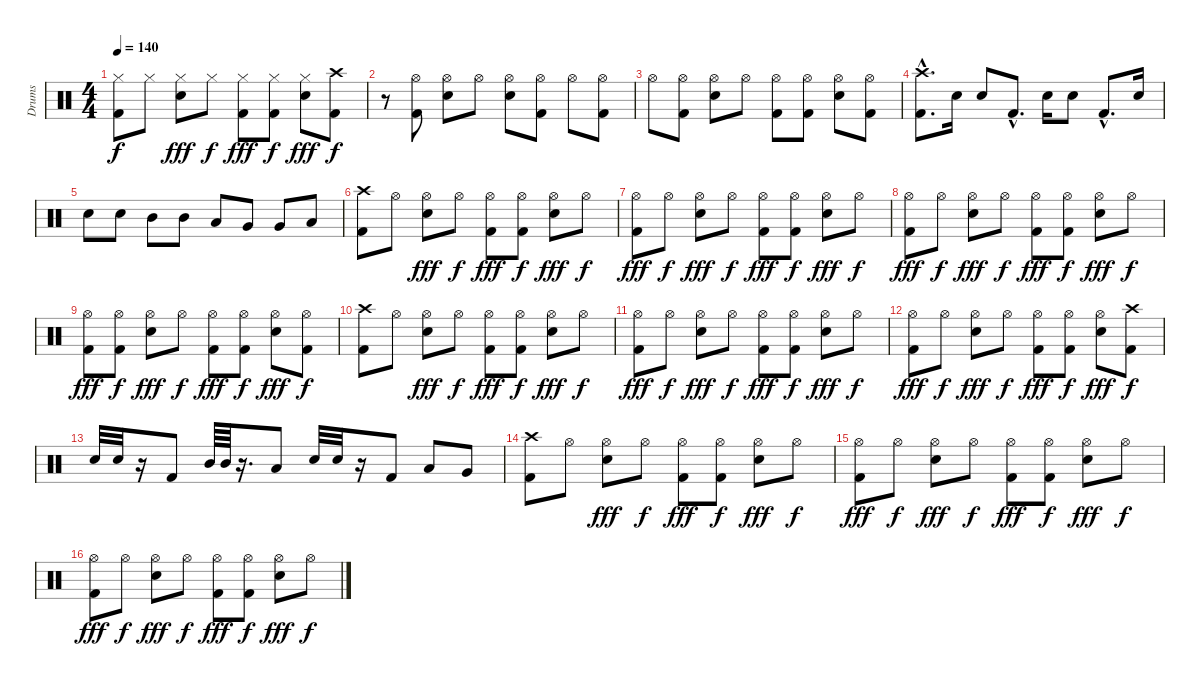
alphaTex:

\track ("Drums" "Drums") {instrument percussion}
\staff {score}
\articulation defaults
\ts (4 4)
\tempo 140
\clef neutral
\ks c
("Hi-Hat (closed)" "Kick (hit) 2").8{dy f} "Hi-Hat (closed)".8 ("Hi-Hat (closed)" "Snare (hit) 2").8{dy fff} "Hi-Hat (closed)".8{dy f} ("Hi-Hat (closed)" "Kick (hit) 2").8{dy fff} ("Hi-Hat (closed)" "Kick (hit) 2").8{dy f} ("Hi-Hat (closed)" "Snare (hit) 2").8{dy fff} ("Crash high (hit)" "Kick (hit) 2").8{dy f} |
r.8 ("Hi-Hat (open)" "Kick (hit) 2").8 ("Hi-Hat (open)" "Snare (hit) 2").8 "Hi-Hat (open)".8 ("Hi-Hat (open)" "Snare (hit) 2").8 ("Hi-Hat (open)" "Kick (hit) 2").8 "Hi-Hat (open)".8 ("Hi-Hat (open)" "Kick (hit) 2").8 |
"Hi-Hat (open)".8 ("Hi-Hat (open)" "Kick (hit) 2").8 ("Hi-Hat (open)" "Snare (hit) 2").8 "Hi-Hat (open)".8 ("Hi-Hat (open)" "Kick (hit) 2").8 ("Hi-Hat (open)" "Kick (hit) 2").8 ("Hi-Hat (open)" "Snare (hit) 2").8 ("Hi-Hat (open)" "Kick (hit) 2").8 |
("Crash high (hit)"{hac} "Kick (hit) 2"{hac}).8{d} "Snare (hit) 2".16 "Snare (hit) 2".8 "Kick (hit) 2"{hac}.8{d} "Snare (hit) 2".16 "Snare (hit) 2".8 "Kick (hit) 2"{hac}.8{d} "Snare (hit) 2".16 |
"Snare (hit) 2".8 "Snare (hit) 2".8 "Mid Tom (hit)".8 "Mid Tom (hit)".8 "Low Tom (hit)".8 "Very Low Tom (hit)".8 "Very Low Tom (hit)".8 "Low Floor Tom (hit)".8 |
("Crash high (hit)" "Kick (hit) 2").8 "Hi-Hat (open)".8 ("Hi-Hat (open)" "Snare (hit) 2").8{dy fff} "Hi-Hat (open)".8{dy f} ("Hi-Hat (open)" "Kick (hit) 2").8{dy fff} ("Hi-Hat (open)" "Kick (hit) 2").8{dy f} ("Hi-Hat (open)" "Snare (hit) 2").8{dy fff} "Hi-Hat (open)".8{dy f} |
("Hi-Hat (open)" "Kick (hit) 2").8{dy fff} "Hi-Hat (open)".8{dy f} ("Hi-Hat (open)" "Snare (hit) 2").8{dy fff} "Hi-Hat (open)".8{dy f} ("Hi-Hat (open)" "Kick (hit) 2").8{dy fff} ("Hi-Hat (open)" "Kick (hit) 2").8{dy f} ("Hi-Hat (open)" "Snare (hit) 2").8{dy fff} "Hi-Hat (open)".8{dy f} |
("Hi-Hat (open)" "Kick (hit) 2").8{dy fff} "Hi-Hat (open)".8{dy f} ("Hi-Hat (open)" "Snare (hit) 2").8{dy fff} "Hi-Hat (open)".8{dy f} ("Hi-Hat (open)" "Kick (hit) 2").8{dy fff} ("Hi-Hat (open)" "Kick (hit) 2").8{dy f} ("Hi-Hat (open)" "Snare (hit) 2").8{dy fff} "Hi-Hat (open)".8{dy f} |
("Hi-Hat (open)" "Kick (hit) 2").8{dy fff} ("Hi-Hat (open)" "Kick (hit) 2").8{dy f} ("Hi-Hat (open)" "Snare (hit) 2").8{dy fff} "Hi-Hat (open)".8{dy f} ("Hi-Hat (open)" "Kick (hit) 2").8{dy fff} ("Hi-Hat (open)" "Kick (hit) 2").8{dy f} ("Hi-Hat (open)" "Snare (hit) 2").8{dy fff} ("Hi-Hat (open)" "Kick (hit) 2").8{dy f} |
("Crash high (hit)" "Kick (hit) 2").8 "Hi-Hat (open)".8 ("Hi-Hat (open)" "Snare (hit) 2").8{dy fff} "Hi-Hat (open)".8{dy f} ("Hi-Hat (open)" "Kick (hit) 2").8{dy fff} ("Hi-Hat (open)" "Kick (hit) 2").8{dy f} ("Hi-Hat (open)" "Snare (hit) 2").8{dy fff} "Hi-Hat (open)".8{dy f} |
("Hi-Hat (open)" "Kick (hit) 2").8{dy fff} "Hi-Hat (open)".8{dy f} ("Hi-Hat (open)" "Snare (hit) 2").8{dy fff} "Hi-Hat (open)".8{dy f} ("Hi-Hat (open)" "Kick (hit) 2").8{dy fff} ("Hi-Hat (open)" "Kick (hit) 2").8{dy f} ("Hi-Hat (open)" "Snare (hit) 2").8{dy fff} "Hi-Hat (open)".8{dy f} |
("Hi-Hat (open)" "Kick (hit) 2").8{dy fff} "Hi-Hat (open)".8{dy f} ("Hi-Hat (open)" "Snare (hit) 2").8{dy fff} "Hi-Hat (open)".8{dy f} ("Hi-Hat (open)" "Kick (hit) 2").8{dy fff} ("Hi-Hat (open)" "Kick (hit) 2").8{dy f} ("Hi-Hat (open)" "Snare (hit) 2").8{dy fff} ("Crash high (hit)" "Kick (hit) 2").8{dy f} |
"Snare (hit) 2".32 "Snare (hit) 2".32 r.16 "Kick (hit) 2".8 "Mid Tom (hit)".64 "Mid Tom (hit)".64 r.16{d} "Low Tom (hit)".8 "Snare (hit) 2".32 "Snare (hit) 2".32 r.16 "Kick (hit) 2".8 "Low Tom (hit)".8 "Very Low Tom (hit)".8 |
("Crash high (hit)" "Kick (hit) 2").8 "Hi-Hat (open)".8 ("Hi-Hat (open)" "Snare (hit) 2").8{dy fff} "Hi-Hat (open)".8{dy f} ("Hi-Hat (open)" "Kick (hit) 2").8{dy fff} ("Hi-Hat (open)" "Kick (hit) 2").8{dy f} ("Hi-Hat (open)" "Snare (hit) 2").8{dy fff} "Hi-Hat (open)".8{dy f} |
("Hi-Hat (open)" "Kick (hit) 2").8{dy fff} "Hi-Hat (open)".8{dy f} ("Hi-Hat (open)" "Snare (hit) 2").8{dy fff} "Hi-Hat (open)".8{dy f} ("Hi-Hat (open)" "Kick (hit) 2").8{dy fff} ("Hi-Hat (open)" "Kick (hit) 2").8{dy f} ("Hi-Hat (open)" "Snare (hit) 2").8{dy fff} "Hi-Hat (open)".8{dy f} |
("Hi-Hat (open)" "Kick (hit) 2").8{dy fff} "Hi-Hat (open)".8{dy f} ("Hi-Hat (open)" "Snare (hit) 2").8{dy fff} "Hi-Hat (open)".8{dy f} ("Hi-Hat (open)" "Kick (hit) 2").8{dy fff} ("Hi-Hat (open)" "Kick (hit) 2").8{dy f} ("Hi-Hat (open)" "Snare (hit) 2").8{dy fff} "Hi-Hat (open)".8{dy f}
